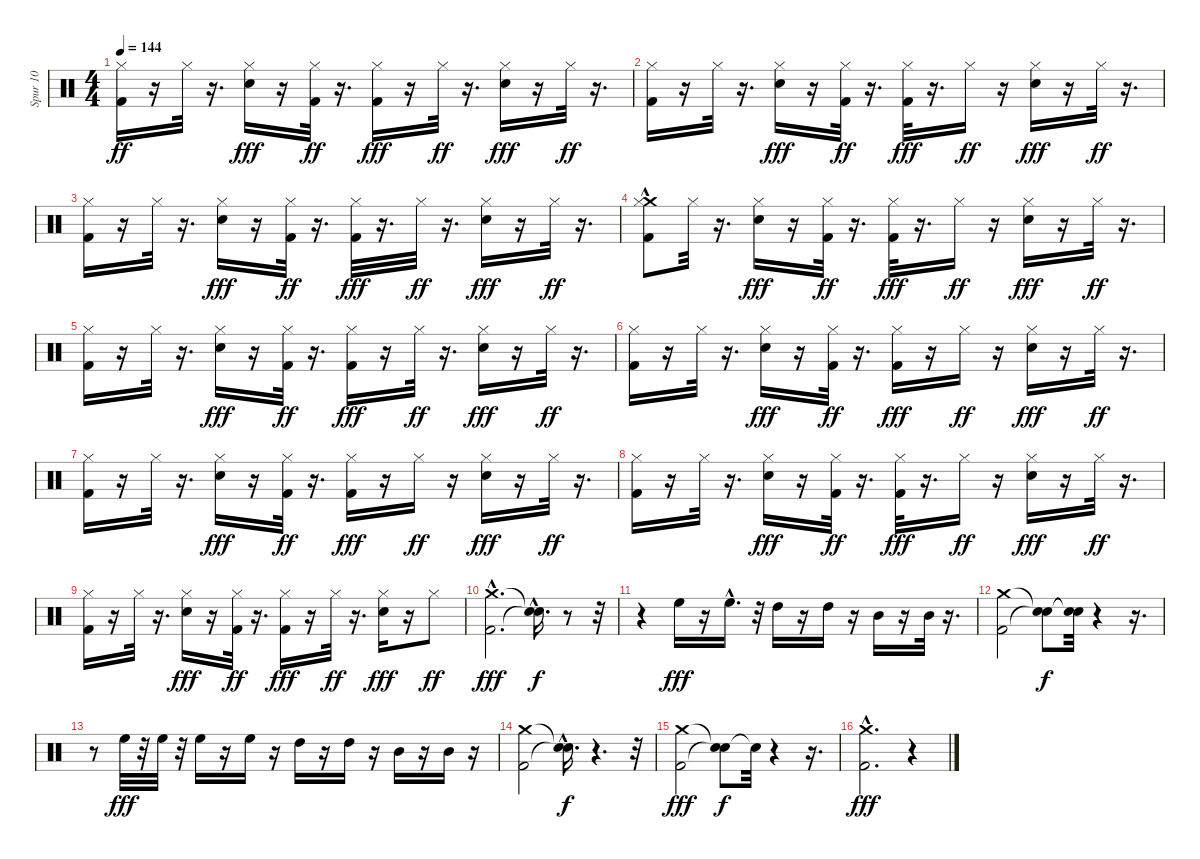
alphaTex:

\track ("Spur 10" "Spur 10") {instrument percussion}
\staff {score}
\articulation defaults
\ts (4 4)
\tempo 144
\clef neutral
\ks c
("Kick (hit) 2" "Hi-Hat (closed)").16{dy ff} r.16 "Hi-Hat (closed)".32 r.16{d} ("Snare (hit) 2" "Hi-Hat (closed)").16{dy fff} r.16 ("Kick (hit) 2" "Hi-Hat (closed)").32{dy ff} r.16{d} ("Kick (hit) 2" "Hi-Hat (closed)").16{dy fff} r.16 "Hi-Hat (closed)".32{dy ff} r.16{d} ("Snare (hit) 2" "Hi-Hat (closed)").16{dy fff} r.16 "Hi-Hat (closed)".32{dy ff} r.16{d} |
("Kick (hit) 2" "Hi-Hat (closed)").16 r.16 "Hi-Hat (closed)".32 r.16{d} ("Snare (hit) 2" "Hi-Hat (closed)").16{dy fff} r.16 ("Kick (hit) 2" "Hi-Hat (closed)").32{dy ff} r.16{d} ("Kick (hit) 2" "Hi-Hat (closed)").32{dy fff} r.16{d} "Hi-Hat (closed)".16{dy ff} r.16 ("Snare (hit) 2" "Hi-Hat (closed)").16{dy fff} r.16 "Hi-Hat (closed)".32{dy ff} r.16{d} |
("Kick (hit) 2" "Hi-Hat (closed)").16 r.16 "Hi-Hat (closed)".32 r.16{d} ("Snare (hit) 2" "Hi-Hat (closed)").16{dy fff} r.16 ("Kick (hit) 2" "Hi-Hat (closed)").32{dy ff} r.16{d} ("Kick (hit) 2" "Hi-Hat (closed)").32{dy fff} r.16{d} "Hi-Hat (closed)".32{dy ff} r.16{d} ("Snare (hit) 2" "Hi-Hat (closed)").16{dy fff} r.16 "Hi-Hat (closed)".32{dy ff} r.16{d} |
("Crash medium (hit)"{hac} "Kick (hit) 2" "Hi-Hat (closed)").8 "Hi-Hat (closed)".32 r.16{d} ("Snare (hit) 2" "Hi-Hat (closed)").16{dy fff} r.16 ("Kick (hit) 2" "Hi-Hat (closed)").32{dy ff} r.16{d} ("Kick (hit) 2" "Hi-Hat (closed)").32{dy fff} r.16{d} "Hi-Hat (closed)".16{dy ff} r.16 ("Snare (hit) 2" "Hi-Hat (closed)").16{dy fff} r.16 "Hi-Hat (closed)".32{dy ff} r.16{d} |
("Kick (hit) 2" "Hi-Hat (closed)").16 r.16 "Hi-Hat (closed)".32 r.16{d} ("Snare (hit) 2" "Hi-Hat (closed)").16{dy fff} r.16 ("Kick (hit) 2" "Hi-Hat (closed)").32{dy ff} r.16{d} ("Kick (hit) 2" "Hi-Hat (closed)").16{dy fff} r.16 "Hi-Hat (closed)".32{dy ff} r.16{d} ("Snare (hit) 2" "Hi-Hat (closed)").16{dy fff} r.16 "Hi-Hat (closed)".32{dy ff} r.16{d} |
("Kick (hit) 2" "Hi-Hat (closed)").16 r.16 "Hi-Hat (closed)".32 r.16{d} ("Snare (hit) 2" "Hi-Hat (closed)").16{dy fff} r.16 ("Kick (hit) 2" "Hi-Hat (closed)").32{dy ff} r.16{d} ("Kick (hit) 2" "Hi-Hat (closed)").16{dy fff} r.16 "Hi-Hat (closed)".16{dy ff} r.16 ("Snare (hit) 2" "Hi-Hat (closed)").16{dy fff} r.16 "Hi-Hat (closed)".32{dy ff} r.16{d} |
("Kick (hit) 2" "Hi-Hat (closed)").16 r.16 "Hi-Hat (closed)".32 r.16{d} ("Snare (hit) 2" "Hi-Hat (closed)").16{dy fff} r.16 ("Kick (hit) 2" "Hi-Hat (closed)").32{dy ff} r.16{d} ("Kick (hit) 2" "Hi-Hat (closed)").16{dy fff} r.16 "Hi-Hat (closed)".16{dy ff} r.16 ("Snare (hit) 2" "Hi-Hat (closed)").16{dy fff} r.16 "Hi-Hat (closed)".32{dy ff} r.16{d} |
("Kick (hit) 2" "Hi-Hat (closed)").16 r.16 "Hi-Hat (closed)".32 r.16{d} ("Snare (hit) 2" "Hi-Hat (closed)").16{dy fff} r.16 ("Kick (hit) 2" "Hi-Hat (closed)").32{dy ff} r.16{d} ("Kick (hit) 2" "Hi-Hat (closed)").32{dy fff} r.16{d} "Hi-Hat (closed)".16{dy ff} r.16 ("Snare (hit) 2" "Hi-Hat (closed)").16{dy fff} r.16 "Hi-Hat (closed)".32{dy ff} r.16{d} |
("Kick (hit) 2" "Hi-Hat (closed)").16 r.16 "Hi-Hat (closed)".32 r.16{d} ("Snare (hit) 2" "Hi-Hat (closed)").16{dy fff} r.16 ("Kick (hit) 2" "Hi-Hat (closed)").32{dy ff} r.16{d} ("Kick (hit) 2" "Hi-Hat (closed)").16{dy fff} r.16 "Hi-Hat (closed)".32{dy ff} r.16{d} ("Snare (hit) 2" "Hi-Hat (closed)").16{dy fff} r.16 "Hi-Hat (closed)".8{dy ff} |
("Kick (hit) 2"{hac} "Crash medium (hit)"{hac}).2{d dy fff} ("Snare (hit)"{hac t} "Snare (hit)"{hac t}).16{d dy f} r.8 r.32 |
r.4 "High Floor Tom (hit)".16{dy fff} r.16 "High Floor Tom (hit)"{hac}.16{d} r.32 "High Tom (hit)".16 r.16 "High Tom (hit)".16 r.16 "Mid Tom (hit)".16 r.16 "Mid Tom (hit)".32 r.16{d} |
("Crash medium (hit)" "Kick (hit) 2").2 ("Snare (hit)"{t} "Snare (hit)"{t}).8{dy f} ("Snare (hit)"{t} "Snare (hit)"{t}).32 r.4 r.16{d} |
r.8 "High Floor Tom (hit)".32{dy fff} r.32 "High Floor Tom (hit)".32 r.32 "High Floor Tom (hit)".16 r.16 "High Floor Tom (hit)".16 r.16 "High Tom (hit)".16 r.16 "High Tom (hit)".16 r.16 "Mid Tom (hit)".16 r.16 "Mid Tom (hit)".16 r.16 |
("Kick (hit) 2" "Crash medium (hit)").2 ("Snare (hit)"{t} "Snare (hit)"{hac t}).16{d dy f} r.4{d} r.32 |
("Kick (hit) 2" "Crash medium (hit)").2{dy fff} ("Snare (hit)"{t} "Snare (hit)"{t}).8{dy f} "Snare (hit)"{t}.32 r.4 r.16{d} |
("Crash medium (hit)"{hac} "Kick (hit) 2"{hac}).2{d dy fff} r.4
